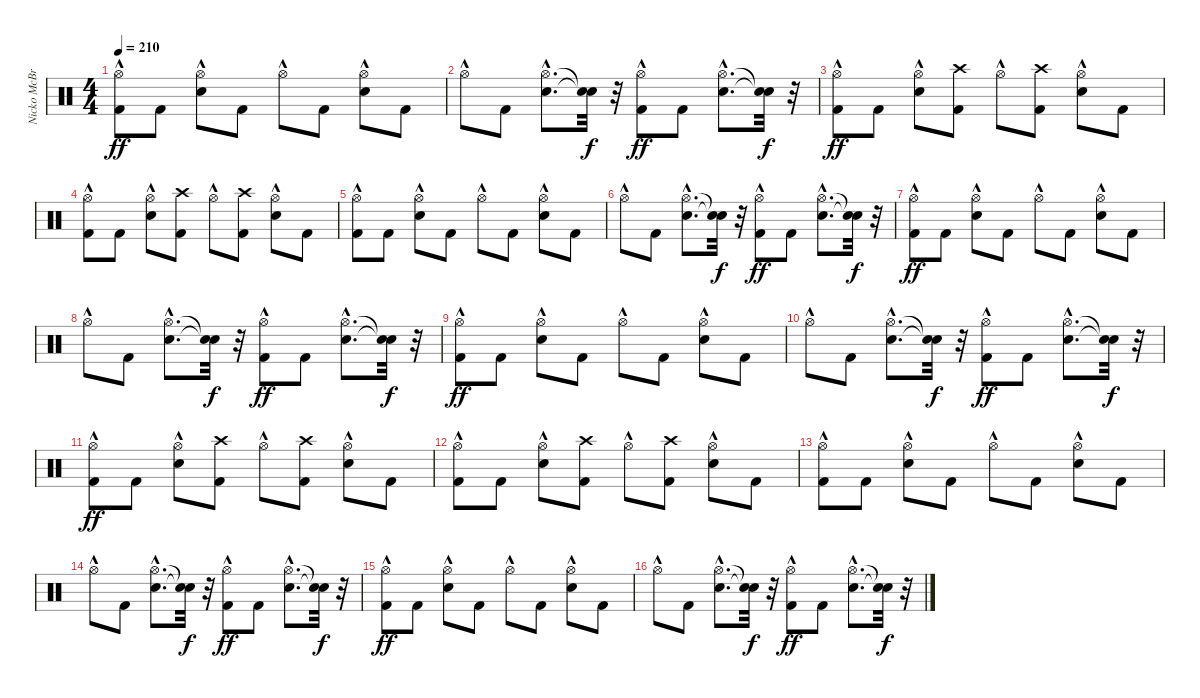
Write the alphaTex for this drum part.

\track ("Nicko McBrain" "Nicko McBr") {instrument percussion}
\staff {score}
\articulation defaults
\ts (4 4)
\tempo 210
\clef neutral
\ks c
("Kick (hit) 2" "Hi-Hat (open)"{hac}).8{dy ff} "Kick (hit) 2".8 ("Snare (hit) 2" "Hi-Hat (open)"{hac}).8 "Kick (hit) 2".8 "Hi-Hat (open)"{hac}.8 "Kick (hit) 2".8 ("Snare (hit) 2" "Hi-Hat (open)"{hac}).8 "Kick (hit) 2".8 |
"Hi-Hat (open)"{hac}.8 "Kick (hit) 2".8 ("Snare (hit) 2"{hac} "Hi-Hat (open)"{hac}).8{d} ("Snare (hit)"{t} "Snare (hit)"{t}).32{dy f} r.32 ("Kick (hit) 2" "Hi-Hat (open)"{hac}).8{dy ff} "Kick (hit) 2".8 ("Snare (hit) 2"{hac} "Hi-Hat (open)"{hac}).8{d} ("Snare (hit)"{t} "Snare (hit)"{t}).32{dy f} r.32 |
("Kick (hit) 2" "Hi-Hat (open)"{hac}).8{dy ff} "Kick (hit) 2".8 ("Snare (hit) 2" "Hi-Hat (open)"{hac}).8 ("Kick (hit) 2" "Crash high (hit)").8 "Hi-Hat (open)"{hac}.8 ("Kick (hit) 2" "Crash high (hit)").8 ("Snare (hit) 2" "Hi-Hat (open)"{hac}).8 "Kick (hit) 2".8 |
("Kick (hit) 2" "Hi-Hat (open)"{hac}).8 "Kick (hit) 2".8 ("Snare (hit) 2" "Hi-Hat (open)"{hac}).8 ("Kick (hit) 2" "Crash high (hit)").8 "Hi-Hat (open)"{hac}.8 ("Kick (hit) 2" "Crash high (hit)").8 ("Snare (hit) 2" "Hi-Hat (open)"{hac}).8 "Kick (hit) 2".8 |
("Kick (hit) 2" "Hi-Hat (open)"{hac}).8 "Kick (hit) 2".8 ("Snare (hit) 2" "Hi-Hat (open)"{hac}).8 "Kick (hit) 2".8 "Hi-Hat (open)"{hac}.8 "Kick (hit) 2".8 ("Snare (hit) 2" "Hi-Hat (open)"{hac}).8 "Kick (hit) 2".8 |
"Hi-Hat (open)"{hac}.8 "Kick (hit) 2".8 ("Snare (hit) 2"{hac} "Hi-Hat (open)"{hac}).8{d} ("Snare (hit)"{t} "Snare (hit)"{t}).32{dy f} r.32 ("Kick (hit) 2" "Hi-Hat (open)"{hac}).8{dy ff} "Kick (hit) 2".8 ("Snare (hit) 2"{hac} "Hi-Hat (open)"{hac}).8{d} ("Snare (hit)"{t} "Snare (hit)"{t}).32{dy f} r.32 |
("Kick (hit) 2" "Hi-Hat (open)"{hac}).8{dy ff} "Kick (hit) 2".8 ("Snare (hit) 2" "Hi-Hat (open)"{hac}).8 "Kick (hit) 2".8 "Hi-Hat (open)"{hac}.8 "Kick (hit) 2".8 ("Snare (hit) 2" "Hi-Hat (open)"{hac}).8 "Kick (hit) 2".8 |
"Hi-Hat (open)"{hac}.8 "Kick (hit) 2".8 ("Snare (hit) 2"{hac} "Hi-Hat (open)"{hac}).8{d} ("Snare (hit)"{t} "Snare (hit)"{t}).32{dy f} r.32 ("Kick (hit) 2" "Hi-Hat (open)"{hac}).8{dy ff} "Kick (hit) 2".8 ("Snare (hit) 2"{hac} "Hi-Hat (open)"{hac}).8{d} ("Snare (hit)"{t} "Snare (hit)"{t}).32{dy f} r.32 |
("Kick (hit) 2" "Hi-Hat (open)"{hac}).8{dy ff} "Kick (hit) 2".8 ("Snare (hit) 2" "Hi-Hat (open)"{hac}).8 "Kick (hit) 2".8 "Hi-Hat (open)"{hac}.8 "Kick (hit) 2".8 ("Snare (hit) 2" "Hi-Hat (open)"{hac}).8 "Kick (hit) 2".8 |
"Hi-Hat (open)"{hac}.8 "Kick (hit) 2".8 ("Snare (hit) 2"{hac} "Hi-Hat (open)"{hac}).8{d} ("Snare (hit)"{t} "Snare (hit)"{t}).32{dy f} r.32 ("Kick (hit) 2" "Hi-Hat (open)"{hac}).8{dy ff} "Kick (hit) 2".8 ("Snare (hit) 2"{hac} "Hi-Hat (open)"{hac}).8{d} ("Snare (hit)"{t} "Snare (hit)"{t}).32{dy f} r.32 |
("Kick (hit) 2" "Hi-Hat (open)"{hac}).8{dy ff} "Kick (hit) 2".8 ("Snare (hit) 2" "Hi-Hat (open)"{hac}).8 ("Kick (hit) 2" "Crash high (hit)").8 "Hi-Hat (open)"{hac}.8 ("Kick (hit) 2" "Crash high (hit)").8 ("Snare (hit) 2" "Hi-Hat (open)"{hac}).8 "Kick (hit) 2".8 |
("Kick (hit) 2" "Hi-Hat (open)"{hac}).8 "Kick (hit) 2".8 ("Snare (hit) 2" "Hi-Hat (open)"{hac}).8 ("Kick (hit) 2" "Crash high (hit)").8 "Hi-Hat (open)"{hac}.8 ("Kick (hit) 2" "Crash high (hit)").8 ("Snare (hit) 2" "Hi-Hat (open)"{hac}).8 "Kick (hit) 2".8 |
("Kick (hit) 2" "Hi-Hat (open)"{hac}).8 "Kick (hit) 2".8 ("Snare (hit) 2" "Hi-Hat (open)"{hac}).8 "Kick (hit) 2".8 "Hi-Hat (open)"{hac}.8 "Kick (hit) 2".8 ("Snare (hit) 2" "Hi-Hat (open)"{hac}).8 "Kick (hit) 2".8 |
"Hi-Hat (open)"{hac}.8 "Kick (hit) 2".8 ("Snare (hit) 2"{hac} "Hi-Hat (open)"{hac}).8{d} ("Snare (hit)"{t} "Snare (hit)"{t}).32{dy f} r.32 ("Kick (hit) 2" "Hi-Hat (open)"{hac}).8{dy ff} "Kick (hit) 2".8 ("Snare (hit) 2"{hac} "Hi-Hat (open)"{hac}).8{d} ("Snare (hit)"{t} "Snare (hit)"{t}).32{dy f} r.32 |
("Kick (hit) 2" "Hi-Hat (open)"{hac}).8{dy ff} "Kick (hit) 2".8 ("Snare (hit) 2" "Hi-Hat (open)"{hac}).8 "Kick (hit) 2".8 "Hi-Hat (open)"{hac}.8 "Kick (hit) 2".8 ("Snare (hit) 2" "Hi-Hat (open)"{hac}).8 "Kick (hit) 2".8 |
"Hi-Hat (open)"{hac}.8 "Kick (hit) 2".8 ("Snare (hit) 2"{hac} "Hi-Hat (open)"{hac}).8{d} ("Snare (hit)"{t} "Snare (hit)"{t}).32{dy f} r.32 ("Kick (hit) 2" "Hi-Hat (open)"{hac}).8{dy ff} "Kick (hit) 2".8 ("Snare (hit) 2"{hac} "Hi-Hat (open)"{hac}).8{d} ("Snare (hit)"{t} "Snare (hit)"{t}).32{dy f} r.32
